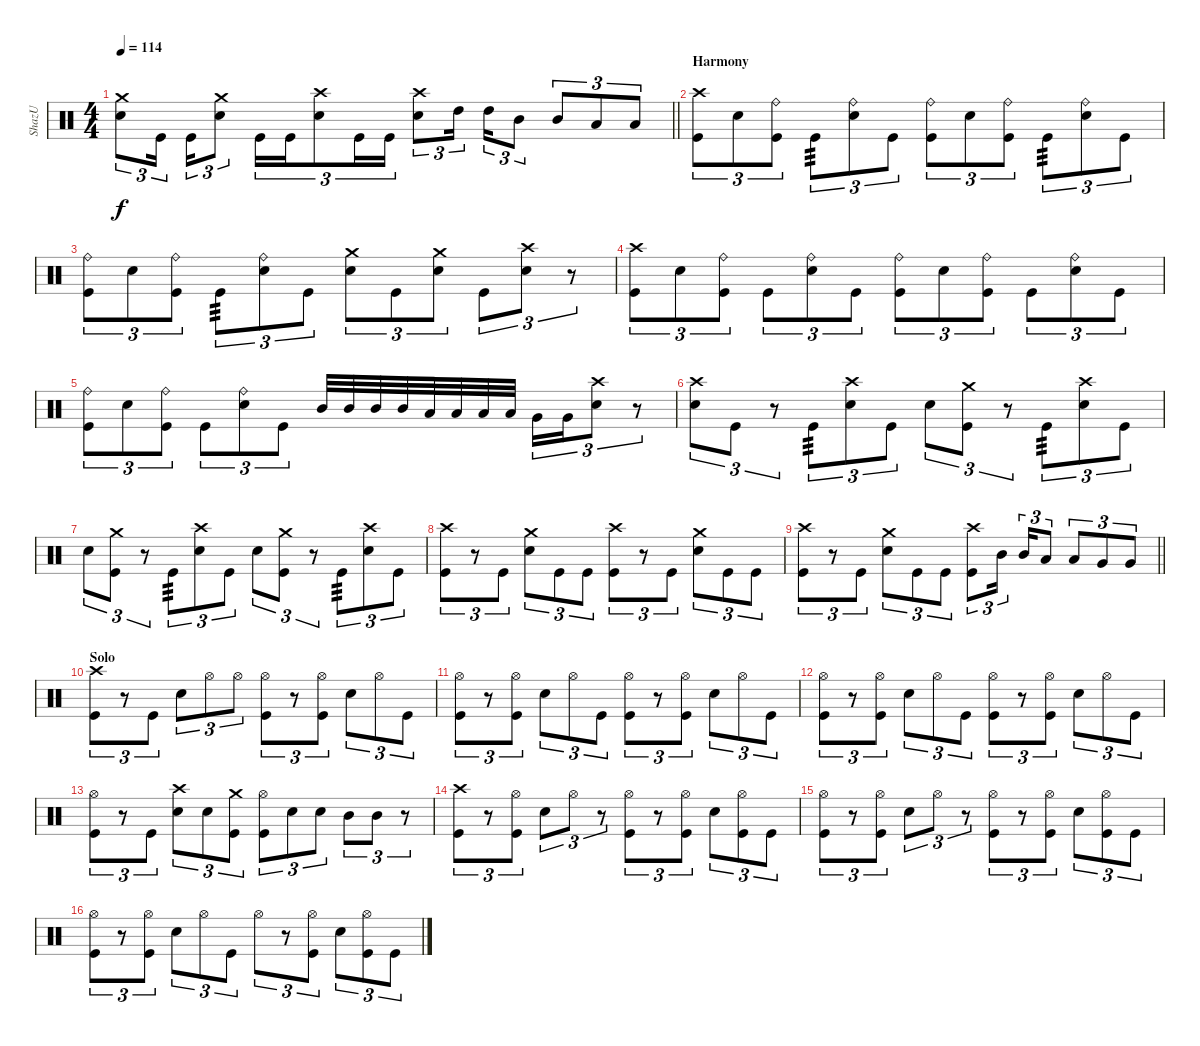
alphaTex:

\track ("ShazU" "ShazU") {instrument percussion}
\staff {score}
\articulation defaults
\ts (4 4)
\tempo 114
\clef neutral
\barLineRight lightlight
\ks c
("Snare (hit) 2" "Crash medium (hit)").8{tu (3 2) dy f} "Kick (hit)".16{tu (3 2) beam splitsecondary} "Kick (hit)".16{tu (3 2)} ("Snare (hit) 2" "Crash medium (hit)").8{tu (3 2)} "Kick (hit)".16{tu (3 2)} "Kick (hit)".16{tu (3 2)} ("Snare (hit) 2" "Crash high (hit)").8{tu (3 2)} "Kick (hit)".16{tu (3 2)} "Kick (hit)".16{tu (3 2)} ("Snare (hit) 2" "Crash high (hit)").8{tu (3 2)} "High Tom (hit)".16{tu (3 2) beam splitsecondary} "High Tom (hit)".16{tu (3 2)} "Mid Tom (hit)".8{tu (3 2)} "Mid Tom (hit)".8{tu (3 2)} "Low Tom (hit)".8{tu (3 2)} "Low Tom (hit)".8{tu (3 2)} |
\section ("" "Harmony")
("Kick (hit)" "Crash high (hit)").8{tu (3 2)} "Snare (hit) 2".8{tu (3 2)} ("Kick (hit)" "Ride (bell)").8{tu (3 2)} "Kick (hit)".8{tu (3 2) tp 3} ("Snare (hit) 2" "Ride (bell)").8{tu (3 2)} "Kick (hit)".8{tu (3 2)} ("Kick (hit)" "Ride (bell)").8{tu (3 2)} "Snare (hit) 2".8{tu (3 2)} ("Kick (hit)" "Ride (bell)").8{tu (3 2)} "Kick (hit)".8{tu (3 2) tp 3} ("Snare (hit) 2" "Ride (bell)").8{tu (3 2)} "Kick (hit)".8{tu (3 2)} |
("Kick (hit)" "Ride (bell)").8{tu (3 2)} "Snare (hit) 2".8{tu (3 2)} ("Kick (hit)" "Ride (bell)").8{tu (3 2)} "Kick (hit)".8{tu (3 2) tp 3} ("Snare (hit) 2" "Ride (bell)").8{tu (3 2)} "Kick (hit)".8{tu (3 2)} ("Snare (hit) 2" "Crash medium (hit)").8{tu (3 2)} "Kick (hit)".8{tu (3 2)} ("Snare (hit) 2" "Crash medium (hit)").8{tu (3 2)} "Kick (hit)".8{tu (3 2)} ("Snare (hit) 2" "Crash high (hit)").8{tu (3 2)} r.8{tu (3 2)} |
("Kick (hit)" "Crash high (hit)").8{tu (3 2)} "Snare (hit) 2".8{tu (3 2)} ("Kick (hit)" "Ride (bell)").8{tu (3 2)} "Kick (hit)".8{tu (3 2)} ("Snare (hit) 2" "Ride (bell)").8{tu (3 2)} "Kick (hit)".8{tu (3 2)} ("Kick (hit)" "Ride (bell)").8{tu (3 2)} "Snare (hit) 2".8{tu (3 2)} ("Kick (hit)" "Ride (bell)").8{tu (3 2)} "Kick (hit)".8{tu (3 2)} ("Snare (hit) 2" "Ride (bell)").8{tu (3 2)} "Kick (hit)".8{tu (3 2)} |
("Kick (hit)" "Ride (bell)").8{tu (3 2)} "Snare (hit) 2".8{tu (3 2)} ("Kick (hit)" "Ride (bell)").8{tu (3 2)} "Kick (hit)".8{tu (3 2)} ("Snare (hit) 2" "Ride (bell)").8{tu (3 2)} "Kick (hit)".8{tu (3 2)} "Mid Tom (hit)".32 "Mid Tom (hit)".32 "Mid Tom (hit)".32 "Mid Tom (hit)".32 "Low Tom (hit)".32 "Low Tom (hit)".32 "Low Tom (hit)".32 "Low Tom (hit)".32 "Very Low Tom (hit)".16{tu (3 2)} "Very Low Tom (hit)".16{tu (3 2)} ("Snare (hit) 2" "Crash high (hit)").8{tu (3 2)} r.8{tu (3 2)} |
("Snare (hit) 2" "Crash high (hit)").8{tu (3 2)} "Kick (hit)".8{tu (3 2)} r.8{tu (3 2)} "Kick (hit)".8{tu (3 2) tp 3} ("Snare (hit) 2" "Crash high (hit)").8{tu (3 2)} "Kick (hit)".8{tu (3 2)} "Snare (hit) 2".8{tu (3 2)} ("Kick (hit)" "Crash medium (hit)").8{tu (3 2)} r.8{tu (3 2)} "Kick (hit)".8{tu (3 2) tp 3} ("Snare (hit) 2" "Crash high (hit)").8{tu (3 2)} "Kick (hit)".8{tu (3 2)} |
"Snare (hit) 2".8{tu (3 2)} ("Kick (hit)" "Crash medium (hit)").8{tu (3 2)} r.8{tu (3 2)} "Kick (hit)".8{tu (3 2) tp 3} ("Snare (hit) 2" "Crash high (hit)").8{tu (3 2)} "Kick (hit)".8{tu (3 2)} "Snare (hit) 2".8{tu (3 2)} ("Kick (hit)" "Crash medium (hit)").8{tu (3 2)} r.8{tu (3 2)} "Kick (hit)".8{tu (3 2) tp 3} ("Snare (hit) 2" "Crash high (hit)").8{tu (3 2)} "Kick (hit)".8{tu (3 2)} |
("Kick (hit)" "Crash high (hit)").8{tu (3 2)} r.8{tu (3 2)} "Kick (hit)".8{tu (3 2)} ("Snare (hit) 2" "Crash medium (hit)").8{tu (3 2)} "Kick (hit)".8{tu (3 2)} "Kick (hit)".8{tu (3 2)} ("Kick (hit)" "Crash high (hit)").8{tu (3 2)} r.8{tu (3 2)} "Kick (hit)".8{tu (3 2)} ("Snare (hit) 2" "Crash medium (hit)").8{tu (3 2)} "Kick (hit)".8{tu (3 2)} "Kick (hit)".8{tu (3 2)} |
\barLineRight lightlight
("Kick (hit)" "Crash high (hit)").8{tu (3 2)} r.8{tu (3 2)} "Kick (hit)".8{tu (3 2)} ("Snare (hit) 2" "Crash medium (hit)").8{tu (3 2)} "Kick (hit)".8{tu (3 2)} "Kick (hit)".8{tu (3 2)} ("Kick (hit)" "Crash high (hit)").8{tu (3 2)} "Mid Tom (hit)".16{tu (3 2) beam splitsecondary} "Mid Tom (hit)".16{tu (3 2)} "Low Tom (hit)".8{tu (3 2)} "Low Tom (hit)".8{tu (3 2)} "Very Low Tom (hit)".8{tu (3 2)} "Very Low Tom (hit)".8{tu (3 2)} |
\section ("" "Solo")
("Kick (hit)" "Crash high (hit)").8{tu (3 2)} r.8{tu (3 2)} "Kick (hit)".8{tu (3 2)} "Snare (hit) 2".8{tu (3 2)} "Hi-Hat (open)".8{tu (3 2)} "Hi-Hat (open)".8{tu (3 2)} ("Kick (hit)" "Hi-Hat (open)").8{tu (3 2)} r.8{tu (3 2)} ("Kick (hit)" "Hi-Hat (open)").8{tu (3 2)} "Snare (hit) 2".8{tu (3 2)} "Hi-Hat (open)".8{tu (3 2)} "Kick (hit)".8{tu (3 2)} |
("Kick (hit)" "Hi-Hat (open)").8{tu (3 2)} r.8{tu (3 2)} ("Kick (hit)" "Hi-Hat (open)").8{tu (3 2)} "Snare (hit) 2".8{tu (3 2)} "Hi-Hat (open)".8{tu (3 2)} "Kick (hit)".8{tu (3 2)} ("Kick (hit)" "Hi-Hat (open)").8{tu (3 2)} r.8{tu (3 2)} ("Kick (hit)" "Hi-Hat (open)").8{tu (3 2)} "Snare (hit) 2".8{tu (3 2)} "Hi-Hat (open)".8{tu (3 2)} "Kick (hit)".8{tu (3 2)} |
("Kick (hit)" "Hi-Hat (open)").8{tu (3 2)} r.8{tu (3 2)} ("Kick (hit)" "Hi-Hat (open)").8{tu (3 2)} "Snare (hit) 2".8{tu (3 2)} "Hi-Hat (open)".8{tu (3 2)} "Kick (hit)".8{tu (3 2)} ("Kick (hit)" "Hi-Hat (open)").8{tu (3 2)} r.8{tu (3 2)} ("Kick (hit)" "Hi-Hat (open)").8{tu (3 2)} "Snare (hit) 2".8{tu (3 2)} "Hi-Hat (open)".8{tu (3 2)} "Kick (hit)".8{tu (3 2)} |
("Kick (hit)" "Hi-Hat (open)").8{tu (3 2)} r.8{tu (3 2)} "Kick (hit)".8{tu (3 2)} ("Snare (hit) 2" "Crash high (hit)").8{tu (3 2)} "Snare (hit) 2".8{tu (3 2)} ("Kick (hit)" "Crash medium (hit)").8{tu (3 2)} ("Kick (hit)" "Hi-Hat (open)").8{tu (3 2)} "Snare (hit) 2".8{tu (3 2)} "Snare (hit) 2".8{tu (3 2)} "Mid Tom (hit)".8{tu (3 2)} "Mid Tom (hit)".8{tu (3 2)} r.8{tu (3 2)} |
("Kick (hit)" "Crash high (hit)").8{tu (3 2)} r.8{tu (3 2)} ("Kick (hit)" "Hi-Hat (open)").8{tu (3 2)} "Snare (hit) 2".8{tu (3 2)} "Hi-Hat (open)".8{tu (3 2)} r.8{tu (3 2)} ("Kick (hit)" "Hi-Hat (open)").8{tu (3 2)} r.8{tu (3 2)} ("Kick (hit)" "Hi-Hat (open)").8{tu (3 2)} "Snare (hit) 2".8{tu (3 2)} ("Kick (hit)" "Hi-Hat (open)").8{tu (3 2)} "Kick (hit)".8{tu (3 2)} |
("Kick (hit)" "Hi-Hat (open)").8{tu (3 2)} r.8{tu (3 2)} ("Kick (hit)" "Hi-Hat (open)").8{tu (3 2)} "Snare (hit) 2".8{tu (3 2)} "Hi-Hat (open)".8{tu (3 2)} r.8{tu (3 2)} ("Kick (hit)" "Hi-Hat (open)").8{tu (3 2)} r.8{tu (3 2)} ("Kick (hit)" "Hi-Hat (open)").8{tu (3 2)} "Snare (hit) 2".8{tu (3 2)} ("Kick (hit)" "Hi-Hat (open)").8{tu (3 2)} "Kick (hit)".8{tu (3 2)} |
("Kick (hit)" "Hi-Hat (open)").8{tu (3 2)} r.8{tu (3 2)} ("Kick (hit)" "Hi-Hat (open)").8{tu (3 2)} "Snare (hit) 2".8{tu (3 2)} "Hi-Hat (open)".8{tu (3 2)} "Kick (hit)".8{tu (3 2)} "Hi-Hat (open)".8{tu (3 2)} r.8{tu (3 2)} ("Kick (hit)" "Hi-Hat (open)").8{tu (3 2)} "Snare (hit) 2".8{tu (3 2)} ("Kick (hit)" "Hi-Hat (open)").8{tu (3 2)} "Kick (hit)".8{tu (3 2)}
